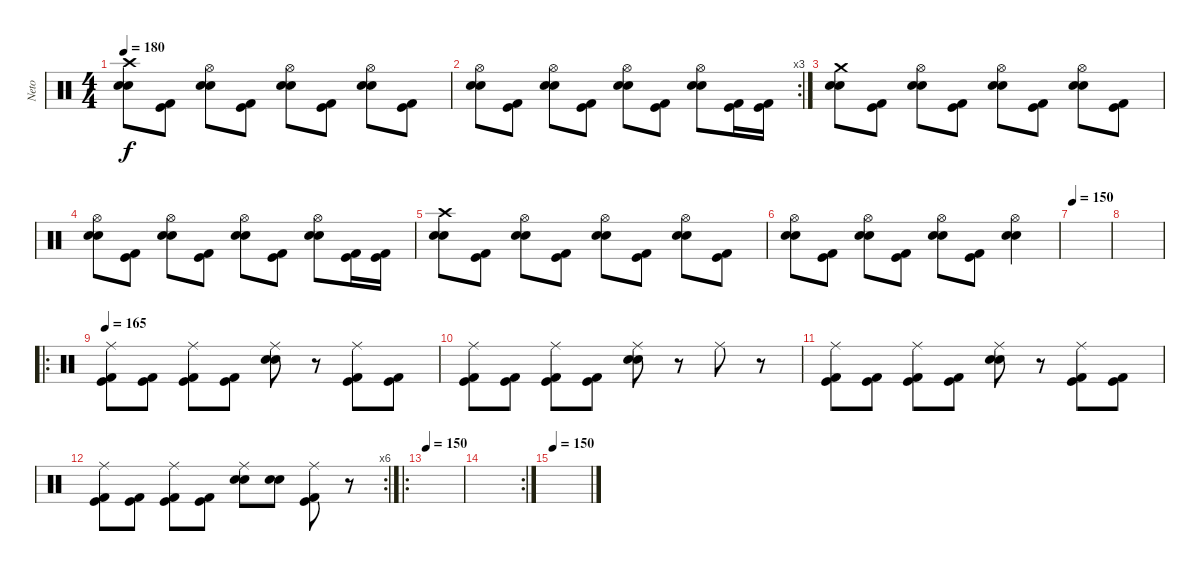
\track ("Neto" "Neto") {instrument percussion}
\staff {score}
\articulation defaults
\ts (4 4)
\tempo 180
\clef neutral
\ks c
("Crash high (hit)" "Snare (hit) 2" "Snare (hit) 2").8{dy f} ("Kick (hit)" "Kick (hit) 2").8 ("Hi-Hat (open)" "Snare (hit) 2" "Snare (hit) 2").8 ("Kick (hit)" "Kick (hit) 2").8 ("Hi-Hat (open)" "Snare (hit) 2" "Snare (hit) 2").8 ("Kick (hit)" "Kick (hit) 2").8 ("Hi-Hat (open)" "Snare (hit) 2" "Snare (hit) 2").8 ("Kick (hit)" "Kick (hit) 2").8 |
\rc 3
("Hi-Hat (open)" "Snare (hit) 2" "Snare (hit) 2").8 ("Kick (hit)" "Kick (hit) 2").8 ("Hi-Hat (open)" "Snare (hit) 2" "Snare (hit) 2").8 ("Kick (hit)" "Kick (hit) 2").8 ("Hi-Hat (open)" "Snare (hit) 2" "Snare (hit) 2").8 ("Kick (hit)" "Kick (hit) 2").8 ("Hi-Hat (open)" "Snare (hit) 2" "Snare (hit) 2").8 ("Kick (hit)" "Kick (hit) 2").16 ("Kick (hit)" "Kick (hit) 2").16 |
("Crash medium (hit)" "Snare (hit) 2" "Snare (hit) 2").8 ("Kick (hit)" "Kick (hit) 2").8 ("Hi-Hat (open)" "Snare (hit) 2" "Snare (hit) 2").8 ("Kick (hit)" "Kick (hit) 2").8 ("Hi-Hat (open)" "Snare (hit) 2" "Snare (hit) 2").8 ("Kick (hit)" "Kick (hit) 2").8 ("Hi-Hat (open)" "Snare (hit) 2" "Snare (hit) 2").8 ("Kick (hit)" "Kick (hit) 2").8 |
("Hi-Hat (open)" "Snare (hit) 2" "Snare (hit) 2").8 ("Kick (hit)" "Kick (hit) 2").8 ("Hi-Hat (open)" "Snare (hit) 2" "Snare (hit) 2").8 ("Kick (hit)" "Kick (hit) 2").8 ("Hi-Hat (open)" "Snare (hit) 2" "Snare (hit) 2").8 ("Kick (hit)" "Kick (hit) 2").8 ("Hi-Hat (open)" "Snare (hit) 2" "Snare (hit) 2").8 ("Kick (hit)" "Kick (hit) 2").16 ("Kick (hit)" "Kick (hit) 2").16 |
("Crash high (hit)" "Snare (hit) 2" "Snare (hit) 2").8 ("Kick (hit)" "Kick (hit) 2").8 ("Hi-Hat (open)" "Snare (hit) 2" "Snare (hit) 2").8 ("Kick (hit)" "Kick (hit) 2").8 ("Hi-Hat (open)" "Snare (hit) 2" "Snare (hit) 2").8 ("Kick (hit)" "Kick (hit) 2").8 ("Hi-Hat (open)" "Snare (hit) 2" "Snare (hit) 2").8 ("Kick (hit)" "Kick (hit) 2").8 |
("Hi-Hat (open)" "Snare (hit) 2" "Snare (hit) 2").8 ("Kick (hit)" "Kick (hit) 2").8 ("Hi-Hat (open)" "Snare (hit) 2" "Snare (hit) 2").8 ("Kick (hit)" "Kick (hit) 2").8 ("Hi-Hat (open)" "Snare (hit) 2" "Snare (hit) 2").8 ("Kick (hit)" "Kick (hit) 2").8 ("Hi-Hat (open)" "Snare (hit) 2" "Snare (hit) 2").4 |
\tempo 150
|
|
\ro
\tempo 165
("Ride (middle)" "Kick (hit)" "Kick (hit) 2").8 ("Kick (hit)" "Kick (hit) 2").8 ("Ride (middle)" "Kick (hit)" "Kick (hit) 2").8 ("Kick (hit)" "Kick (hit) 2").8 ("Ride (middle)" "Snare (hit) 2" "Snare (hit) 2").8 r.8 ("Ride (middle)" "Kick (hit)" "Kick (hit) 2").8 ("Kick (hit)" "Kick (hit) 2").8 |
("Ride (middle)" "Kick (hit)" "Kick (hit) 2").8 ("Kick (hit)" "Kick (hit) 2").8 ("Ride (middle)" "Kick (hit)" "Kick (hit) 2").8 ("Kick (hit)" "Kick (hit) 2").8 ("Ride (middle)" "Snare (hit) 2" "Snare (hit) 2").8 r.8 "Ride (middle)".8 r.8 |
("Ride (middle)" "Kick (hit)" "Kick (hit) 2").8 ("Kick (hit)" "Kick (hit) 2").8 ("Ride (middle)" "Kick (hit)" "Kick (hit) 2").8 ("Kick (hit)" "Kick (hit) 2").8 ("Ride (middle)" "Snare (hit) 2" "Snare (hit) 2").8 r.8 ("Ride (middle)" "Kick (hit)" "Kick (hit) 2").8 ("Kick (hit)" "Kick (hit) 2").8 |
\rc 6
("Ride (middle)" "Kick (hit)" "Kick (hit) 2").8 ("Kick (hit)" "Kick (hit) 2").8 ("Ride (middle)" "Kick (hit)" "Kick (hit) 2").8 ("Kick (hit)" "Kick (hit) 2").8 ("Ride (middle)" "Snare (hit) 2" "Snare (hit) 2").8 ("Snare (hit) 2" "Snare (hit) 2").8 ("Ride (middle)" "Kick (hit)" "Kick (hit) 2").8 r.8 |
\ro
\tempo 150
|
\rc 2
|
\tempo 150
